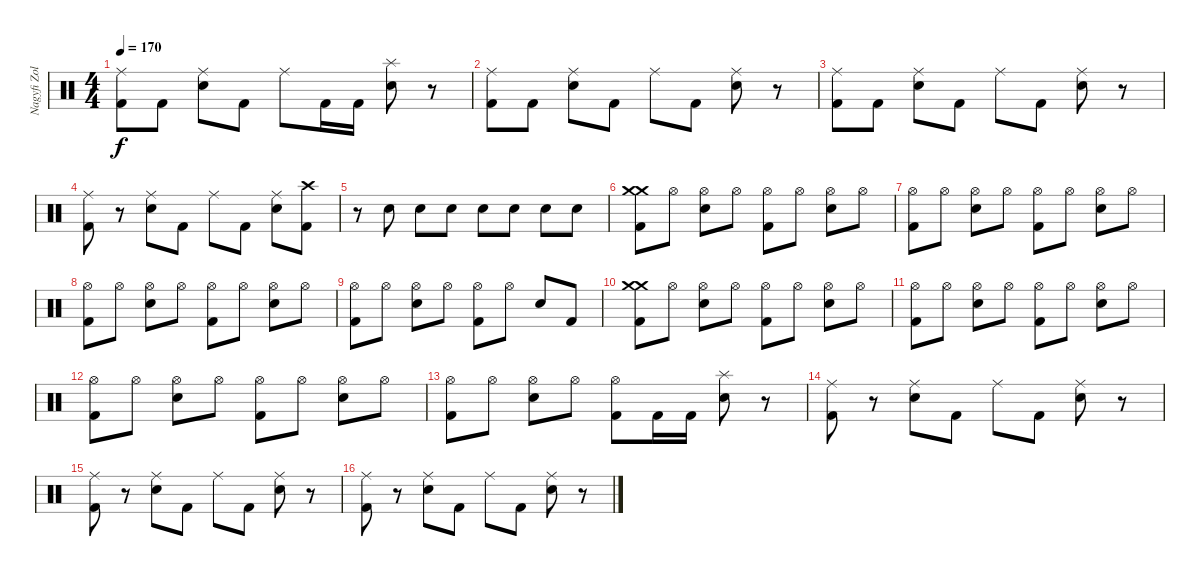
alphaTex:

\track ("Nagyfi Zoltán - Dob" "Nagyfi Zol") {instrument percussion}
\staff {score}
\articulation defaults
\ts (4 4)
\tempo 170
\clef neutral
\ks c
("Ride (middle)" "Kick (hit) 2").8{dy f} "Kick (hit) 2".8 ("Ride (middle)" "Electric Snare (hit)").8 "Kick (hit) 2".8 "Ride (middle)".8 "Kick (hit) 2".16 "Kick (hit) 2".16 ("Splash (hit)" "Electric Snare (hit)").8 r.8 |
("Ride (middle)" "Kick (hit) 2").8 "Kick (hit) 2".8 ("Ride (middle)" "Electric Snare (hit)").8 "Kick (hit) 2".8 "Ride (middle)".8 "Kick (hit) 2".8 ("Ride (middle)" "Electric Snare (hit)").8 r.8 |
("Ride (middle)" "Kick (hit) 2").8 "Kick (hit) 2".8 ("Ride (middle)" "Electric Snare (hit)").8 "Kick (hit) 2".8 "Ride (middle)".8 "Kick (hit) 2".8 ("Ride (middle)" "Electric Snare (hit)").8 r.8 |
("Ride (middle)" "Kick (hit) 2").8 r.8 ("Ride (middle)" "Electric Snare (hit)").8 "Kick (hit) 2".8 "Ride (middle)".8 "Kick (hit) 2".8 ("Ride (middle)" "Electric Snare (hit)").8 ("Crash high (hit)" "Kick (hit) 2").8 |
r.8 "Electric Snare (hit)".8 "Electric Snare (hit)".8 "Electric Snare (hit)".8 "Electric Snare (hit)".8 "Electric Snare (hit)".8 "Electric Snare (hit)".8 "Electric Snare (hit)".8 |
("Crash medium (hit)" "Crash medium (hit)" "Kick (hit) 2").8 "Hi-Hat (open)".8 ("Hi-Hat (open)" "Electric Snare (hit)").8 "Hi-Hat (open)".8 ("Hi-Hat (open)" "Kick (hit) 2").8 "Hi-Hat (open)".8 ("Hi-Hat (open)" "Electric Snare (hit)").8 "Hi-Hat (open)".8 |
("Hi-Hat (open)" "Kick (hit) 2").8 "Hi-Hat (open)".8 ("Hi-Hat (open)" "Electric Snare (hit)").8 "Hi-Hat (open)".8 ("Hi-Hat (open)" "Kick (hit) 2").8 "Hi-Hat (open)".8 ("Hi-Hat (open)" "Electric Snare (hit)").8 "Hi-Hat (open)".8 |
("Hi-Hat (open)" "Kick (hit) 2").8 "Hi-Hat (open)".8 ("Hi-Hat (open)" "Electric Snare (hit)").8 "Hi-Hat (open)".8 ("Hi-Hat (open)" "Kick (hit) 2").8 "Hi-Hat (open)".8 ("Hi-Hat (open)" "Electric Snare (hit)").8 "Hi-Hat (open)".8 |
("Hi-Hat (open)" "Kick (hit) 2").8 "Hi-Hat (open)".8 ("Hi-Hat (open)" "Electric Snare (hit)").8 "Hi-Hat (open)".8 ("Hi-Hat (open)" "Kick (hit) 2").8 "Hi-Hat (open)".8 "Electric Snare (hit)".8 "Kick (hit) 2".8 |
("Crash medium (hit)" "Crash medium (hit)" "Kick (hit) 2").8 "Hi-Hat (open)".8 ("Hi-Hat (open)" "Electric Snare (hit)").8 "Hi-Hat (open)".8 ("Hi-Hat (open)" "Kick (hit) 2").8 "Hi-Hat (open)".8 ("Hi-Hat (open)" "Electric Snare (hit)").8 "Hi-Hat (open)".8 |
("Hi-Hat (open)" "Kick (hit) 2").8 "Hi-Hat (open)".8 ("Hi-Hat (open)" "Electric Snare (hit)").8 "Hi-Hat (open)".8 ("Hi-Hat (open)" "Kick (hit) 2").8 "Hi-Hat (open)".8 ("Hi-Hat (open)" "Electric Snare (hit)").8 "Hi-Hat (open)".8 |
("Hi-Hat (open)" "Kick (hit) 2").8 "Hi-Hat (open)".8 ("Hi-Hat (open)" "Electric Snare (hit)").8 "Hi-Hat (open)".8 ("Hi-Hat (open)" "Kick (hit) 2").8 "Hi-Hat (open)".8 ("Hi-Hat (open)" "Electric Snare (hit)").8 "Hi-Hat (open)".8 |
("Hi-Hat (open)" "Kick (hit) 2").8 "Hi-Hat (open)".8 ("Hi-Hat (open)" "Electric Snare (hit)").8 "Hi-Hat (open)".8 ("Hi-Hat (open)" "Kick (hit) 2").8 "Kick (hit) 2".16 "Kick (hit) 2".16 ("Splash (hit)" "Electric Snare (hit)").8 r.8 |
("Ride (middle)" "Kick (hit) 2").8 r.8 ("Ride (middle)" "Electric Snare (hit)").8 "Kick (hit) 2".8 "Ride (middle)".8 "Kick (hit) 2".8 ("Ride (middle)" "Electric Snare (hit)").8 r.8 |
("Ride (middle)" "Kick (hit) 2").8 r.8 ("Ride (middle)" "Electric Snare (hit)").8 "Kick (hit) 2".8 "Ride (middle)".8 "Kick (hit) 2".8 ("Ride (middle)" "Electric Snare (hit)").8 r.8 |
("Ride (middle)" "Kick (hit) 2").8 r.8 ("Ride (middle)" "Electric Snare (hit)").8 "Kick (hit) 2".8 "Ride (middle)".8 "Kick (hit) 2".8 ("Ride (middle)" "Electric Snare (hit)").8 r.8
